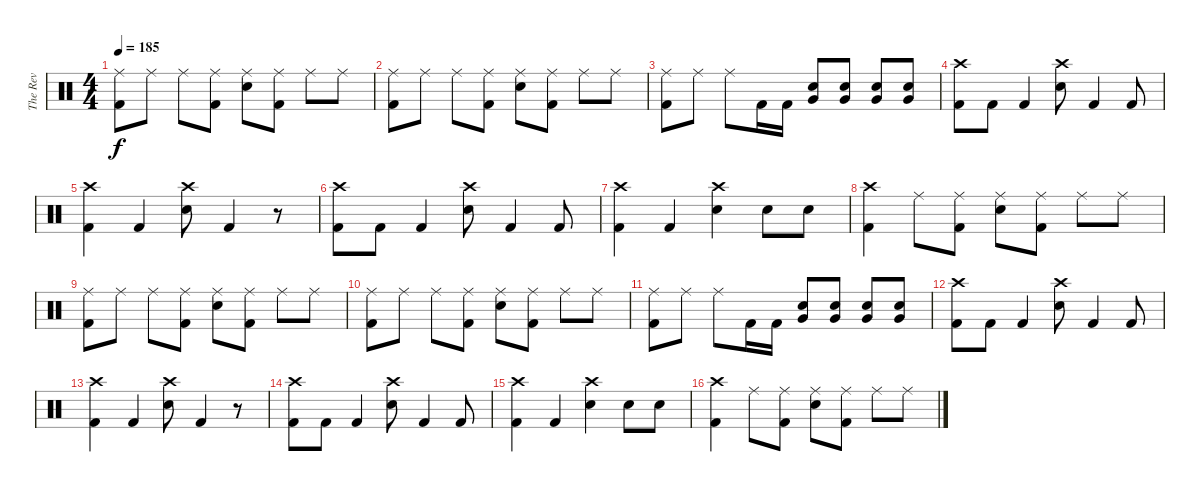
\track ("The Rev" "The Rev") {instrument percussion}
\staff {score}
\articulation defaults
\ts (4 4)
\tempo 185
\clef neutral
\ks c
("Ride (middle)" "Kick (hit) 2").8{dy f} "Ride (middle)".8 "Ride (middle)".8 ("Ride (middle)" "Kick (hit) 2").8 ("Ride (middle)" "Electric Snare (hit)").8 ("Ride (middle)" "Kick (hit) 2").8 "Ride (middle)".8 "Ride (middle)".8 |
("Ride (middle)" "Kick (hit) 2").8 "Ride (middle)".8 "Ride (middle)".8 ("Ride (middle)" "Kick (hit) 2").8 ("Ride (middle)" "Electric Snare (hit)").8 ("Ride (middle)" "Kick (hit) 2").8 "Ride (middle)".8 "Ride (middle)".8 |
("Ride (middle)" "Kick (hit) 2").8 "Ride (middle)".8 "Ride (middle)".8 "Kick (hit) 2".16 "Kick (hit) 2".16 ("Very Low Tom (hit)" "Electric Snare (hit)").8 ("Very Low Tom (hit)" "Electric Snare (hit)").8 ("Very Low Tom (hit)" "Electric Snare (hit)").8 ("Very Low Tom (hit)" "Electric Snare (hit)").8 |
("Crash high (hit)" "Kick (hit) 2").8 "Kick (hit) 2".8 "Kick (hit) 2".4 ("Crash high (hit)" "Electric Snare (hit)").8 "Kick (hit) 2".4 "Kick (hit) 2".8 |
("Crash high (hit)" "Kick (hit) 2").4 "Kick (hit) 2".4 ("Crash high (hit)" "Electric Snare (hit)").8 "Kick (hit) 2".4 r.8 |
("Crash high (hit)" "Kick (hit) 2").8 "Kick (hit) 2".8 "Kick (hit) 2".4 ("Crash high (hit)" "Electric Snare (hit)").8 "Kick (hit) 2".4 "Kick (hit) 2".8 |
("Crash high (hit)" "Kick (hit) 2").4 "Kick (hit) 2".4 ("Crash high (hit)" "Electric Snare (hit)").4 "Electric Snare (hit)".8 "Electric Snare (hit)".8 |
("Crash high (hit)" "Kick (hit) 2").4 "Ride (middle)".8 ("Ride (middle)" "Kick (hit) 2").8 ("Ride (middle)" "Electric Snare (hit)").8 ("Ride (middle)" "Kick (hit) 2").8 "Ride (middle)".8 "Ride (middle)".8 |
("Ride (middle)" "Kick (hit) 2").8 "Ride (middle)".8 "Ride (middle)".8 ("Ride (middle)" "Kick (hit) 2").8 ("Ride (middle)" "Electric Snare (hit)").8 ("Ride (middle)" "Kick (hit) 2").8 "Ride (middle)".8 "Ride (middle)".8 |
("Ride (middle)" "Kick (hit) 2").8 "Ride (middle)".8 "Ride (middle)".8 ("Ride (middle)" "Kick (hit) 2").8 ("Ride (middle)" "Electric Snare (hit)").8 ("Ride (middle)" "Kick (hit) 2").8 "Ride (middle)".8 "Ride (middle)".8 |
("Ride (middle)" "Kick (hit) 2").8 "Ride (middle)".8 "Ride (middle)".8 "Kick (hit) 2".16 "Kick (hit) 2".16 ("Very Low Tom (hit)" "Electric Snare (hit)").8 ("Very Low Tom (hit)" "Electric Snare (hit)").8 ("Very Low Tom (hit)" "Electric Snare (hit)").8 ("Very Low Tom (hit)" "Electric Snare (hit)").8 |
("Crash high (hit)" "Kick (hit) 2").8 "Kick (hit) 2".8 "Kick (hit) 2".4 ("Crash high (hit)" "Electric Snare (hit)").8 "Kick (hit) 2".4 "Kick (hit) 2".8 |
("Crash high (hit)" "Kick (hit) 2").4 "Kick (hit) 2".4 ("Crash high (hit)" "Electric Snare (hit)").8 "Kick (hit) 2".4 r.8 |
("Crash high (hit)" "Kick (hit) 2").8 "Kick (hit) 2".8 "Kick (hit) 2".4 ("Crash high (hit)" "Electric Snare (hit)").8 "Kick (hit) 2".4 "Kick (hit) 2".8 |
("Crash high (hit)" "Kick (hit) 2").4 "Kick (hit) 2".4 ("Crash high (hit)" "Electric Snare (hit)").4 "Electric Snare (hit)".8 "Electric Snare (hit)".8 |
("Crash high (hit)" "Kick (hit) 2").4 "Ride (middle)".8 ("Ride (middle)" "Kick (hit) 2").8 ("Ride (middle)" "Electric Snare (hit)").8 ("Ride (middle)" "Kick (hit) 2").8 "Ride (middle)".8 "Ride (middle)".8
